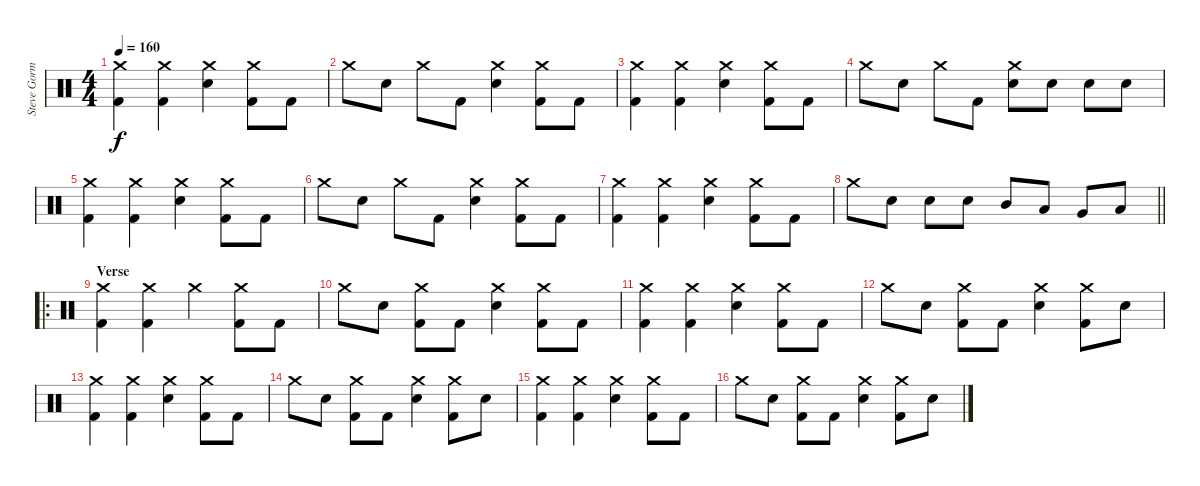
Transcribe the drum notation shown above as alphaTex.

\track ("Steve Gorman " "Steve Gorm") {instrument percussion}
\staff {score}
\articulation defaults
\ts (4 4)
\tempo 160
\clef neutral
\ks c
("Crash medium (hit)" "Kick (hit) 2").4{dy f} ("Crash medium (hit)" "Kick (hit) 2").4 ("Crash medium (hit)" "Snare (hit) 2").4 ("Crash medium (hit)" "Kick (hit) 2").8 "Kick (hit) 2".8 |
"Crash medium (hit)".8 "Snare (hit) 2".8 "Crash medium (hit)".8 "Kick (hit) 2".8 ("Crash medium (hit)" "Snare (hit) 2").4 ("Crash medium (hit)" "Kick (hit) 2").8 "Kick (hit) 2".8 |
("Crash medium (hit)" "Kick (hit) 2").4 ("Crash medium (hit)" "Kick (hit) 2").4 ("Crash medium (hit)" "Snare (hit) 2").4 ("Crash medium (hit)" "Kick (hit) 2").8 "Kick (hit) 2".8 |
"Crash medium (hit)".8 "Snare (hit) 2".8 "Crash medium (hit)".8 "Kick (hit) 2".8 ("Crash medium (hit)" "Snare (hit) 2").8 "Snare (hit) 2".8 "Snare (hit) 2".8 "Snare (hit) 2".8 |
("Crash medium (hit)" "Kick (hit) 2").4 ("Crash medium (hit)" "Kick (hit) 2").4 ("Crash medium (hit)" "Snare (hit) 2").4 ("Crash medium (hit)" "Kick (hit) 2").8 "Kick (hit) 2".8 |
"Crash medium (hit)".8 "Snare (hit) 2".8 "Crash medium (hit)".8 "Kick (hit) 2".8 ("Crash medium (hit)" "Snare (hit) 2").4 ("Crash medium (hit)" "Kick (hit) 2").8 "Kick (hit) 2".8 |
("Crash medium (hit)" "Kick (hit) 2").4 ("Crash medium (hit)" "Kick (hit) 2").4 ("Crash medium (hit)" "Snare (hit) 2").4 ("Crash medium (hit)" "Kick (hit) 2").8 "Kick (hit) 2".8 |
\barLineRight lightlight "Crash medium (hit)".8 "Snare (hit) 2".8 "Snare (hit) 2".8 "Snare (hit) 2".8 "Mid Tom (hit)".8 "Low Tom (hit)".8 "Very Low Tom (hit)".8 "Low Floor Tom (hit)".8
|
\ro
\section ("" "Verse")
("Crash medium (hit)" "Kick (hit) 2").4 ("Crash medium (hit)" "Kick (hit) 2").4 "Crash medium (hit)".4 ("Crash medium (hit)" "Kick (hit) 2").8 "Kick (hit) 2".8 |
"Crash medium (hit)".8 "Snare (hit) 2".8 ("Crash medium (hit)" "Kick (hit) 2").8 "Kick (hit) 2".8 ("Crash medium (hit)" "Snare (hit) 2").4 ("Crash medium (hit)" "Kick (hit) 2").8 "Kick (hit) 2".8 |
("Crash medium (hit)" "Kick (hit) 2").4 ("Crash medium (hit)" "Kick (hit) 2").4 ("Crash medium (hit)" "Snare (hit) 2").4 ("Crash medium (hit)" "Kick (hit) 2").8 "Kick (hit) 2".8 |
"Crash medium (hit)".8 "Snare (hit) 2".8 ("Crash medium (hit)" "Kick (hit) 2").8 "Kick (hit) 2".8 ("Crash medium (hit)" "Snare (hit) 2").4 ("Crash medium (hit)" "Kick (hit) 2").8 "Snare (hit) 2".8 |
("Crash medium (hit)" "Kick (hit) 2").4 ("Crash medium (hit)" "Kick (hit) 2").4 ("Crash medium (hit)" "Snare (hit) 2").4 ("Crash medium (hit)" "Kick (hit) 2").8 "Kick (hit) 2".8 |
"Crash medium (hit)".8 "Snare (hit) 2".8 ("Crash medium (hit)" "Kick (hit) 2").8 "Kick (hit) 2".8 ("Crash medium (hit)" "Snare (hit) 2").4 ("Crash medium (hit)" "Kick (hit) 2").8 "Snare (hit) 2".8 |
("Crash medium (hit)" "Kick (hit) 2").4 ("Crash medium (hit)" "Kick (hit) 2").4 ("Crash medium (hit)" "Snare (hit) 2").4 ("Crash medium (hit)" "Kick (hit) 2").8 "Kick (hit) 2".8 |
"Crash medium (hit)".8 "Snare (hit) 2".8 ("Crash medium (hit)" "Kick (hit) 2").8 "Kick (hit) 2".8 ("Crash medium (hit)" "Snare (hit) 2").4 ("Crash medium (hit)" "Kick (hit) 2").8 "Snare (hit) 2".8
